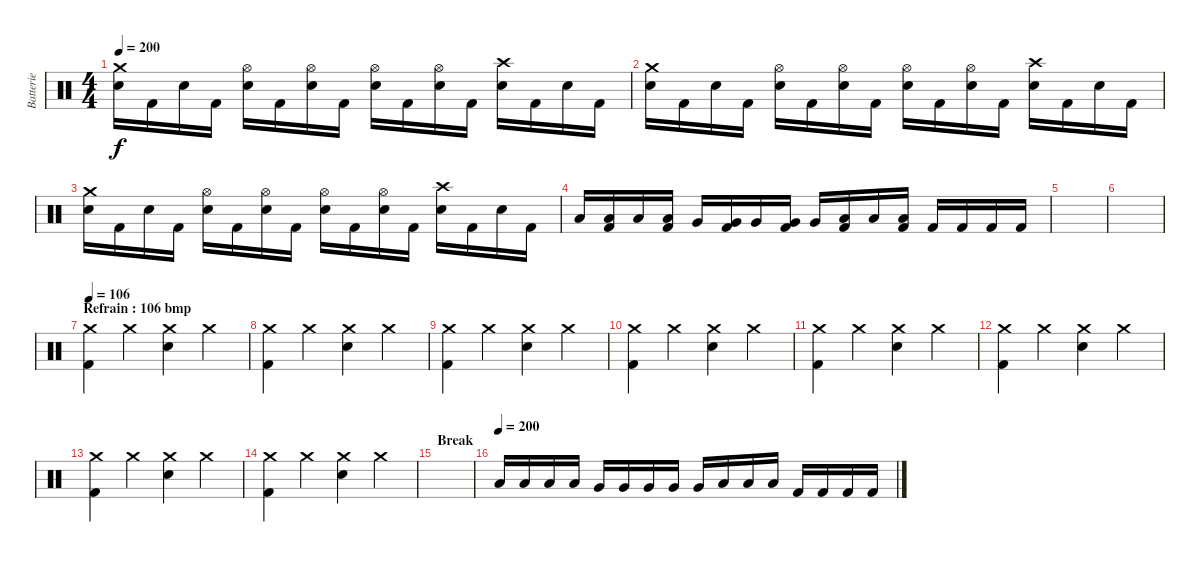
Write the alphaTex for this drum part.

\track ("Batterie" "Batterie") {instrument percussion}
\staff {score}
\articulation defaults
\ts (4 4)
\tempo 200
\clef neutral
\ks c
("Snare (hit) 2" "Crash medium (hit)").16{dy f} "Kick (hit) 2".16 "Snare (hit) 2".16 "Kick (hit) 2".16 ("Snare (hit) 2" "Hi-Hat (open)").16 "Kick (hit) 2".16 ("Snare (hit) 2" "Hi-Hat (open)").16 "Kick (hit) 2".16 ("Snare (hit) 2" "Hi-Hat (open)").16 "Kick (hit) 2".16 ("Snare (hit) 2" "Hi-Hat (open)").16 "Kick (hit) 2".16 ("Snare (hit) 2" "Crash high (hit)").16 "Kick (hit) 2".16 "Snare (hit) 2".16 "Kick (hit) 2".16 |
("Snare (hit) 2" "Crash medium (hit)").16 "Kick (hit) 2".16 "Snare (hit) 2".16 "Kick (hit) 2".16 ("Snare (hit) 2" "Hi-Hat (open)").16 "Kick (hit) 2".16 ("Snare (hit) 2" "Hi-Hat (open)").16 "Kick (hit) 2".16 ("Snare (hit) 2" "Hi-Hat (open)").16 "Kick (hit) 2".16 ("Snare (hit) 2" "Hi-Hat (open)").16 "Kick (hit) 2".16 ("Snare (hit) 2" "Crash high (hit)").16 "Kick (hit) 2".16 "Snare (hit) 2".16 "Kick (hit) 2".16 |
("Snare (hit) 2" "Crash medium (hit)").16 "Kick (hit) 2".16 "Snare (hit) 2".16 "Kick (hit) 2".16 ("Snare (hit) 2" "Hi-Hat (open)").16 "Kick (hit) 2".16 ("Snare (hit) 2" "Hi-Hat (open)").16 "Kick (hit) 2".16 ("Snare (hit) 2" "Hi-Hat (open)").16 "Kick (hit) 2".16 ("Snare (hit) 2" "Hi-Hat (open)").16 "Kick (hit) 2".16 ("Snare (hit) 2" "Crash high (hit)").16 "Kick (hit) 2".16 "Snare (hit) 2".16 "Kick (hit) 2".16 |
"Low Tom (hit)".16 ("Low Tom (hit)" "Kick (hit) 2").16 "Low Tom (hit)".16 ("Low Tom (hit)" "Kick (hit) 2").16 "Very Low Tom (hit)".16 ("Very Low Tom (hit)" "Kick (hit) 2").16 "Very Low Tom (hit)".16 ("Very Low Tom (hit)" "Kick (hit) 2").16 "Very Low Tom (hit)".16 ("Low Floor Tom (hit)" "Kick (hit) 2").16 "Low Floor Tom (hit)".16 ("Low Floor Tom (hit)" "Kick (hit) 2").16 "Kick (hit) 2".16 "Kick (hit) 2".16 "Kick (hit) 2".16 "Kick (hit) 2".16 |
|
|
\section ("" "Refrain : 106 bmp")
\tempo 106
("Crash medium (hit)" "Kick (hit) 2").4 "Crash medium (hit)".4 ("Crash medium (hit)" "Snare (hit) 2").4 "Crash medium (hit)".4 |
("Crash medium (hit)" "Kick (hit) 2").4 "Crash medium (hit)".4 ("Crash medium (hit)" "Snare (hit) 2").4 "Crash medium (hit)".4 |
("Crash medium (hit)" "Kick (hit) 2").4 "Crash medium (hit)".4 ("Crash medium (hit)" "Snare (hit) 2").4 "Crash medium (hit)".4 |
("Crash medium (hit)" "Kick (hit) 2").4 "Crash medium (hit)".4 ("Crash medium (hit)" "Snare (hit) 2").4 "Crash medium (hit)".4 |
("Crash medium (hit)" "Kick (hit) 2").4 "Crash medium (hit)".4 ("Crash medium (hit)" "Snare (hit) 2").4 "Crash medium (hit)".4 |
("Crash medium (hit)" "Kick (hit) 2").4 "Crash medium (hit)".4 ("Crash medium (hit)" "Snare (hit) 2").4 "Crash medium (hit)".4 |
("Crash medium (hit)" "Kick (hit) 2").4 "Crash medium (hit)".4 ("Crash medium (hit)" "Snare (hit) 2").4 "Crash medium (hit)".4 |
("Crash medium (hit)" "Kick (hit) 2").4 "Crash medium (hit)".4 ("Crash medium (hit)" "Snare (hit) 2").4 "Crash medium (hit)".4 |
\section ("" "Break")
|
\tempo (200)
"Low Tom (hit)".16 "Low Tom (hit)".16 "Low Tom (hit)".16 "Low Tom (hit)".16 "Very Low Tom (hit)".16 "Very Low Tom (hit)".16 "Very Low Tom (hit)".16 "Very Low Tom (hit)".16 "Very Low Tom (hit)".16 "Low Floor Tom (hit)".16 "Low Floor Tom (hit)".16 "Low Floor Tom (hit)".16 "Kick (hit) 2".16 "Kick (hit) 2".16 "Kick (hit) 2".16 "Kick (hit) 2".16
